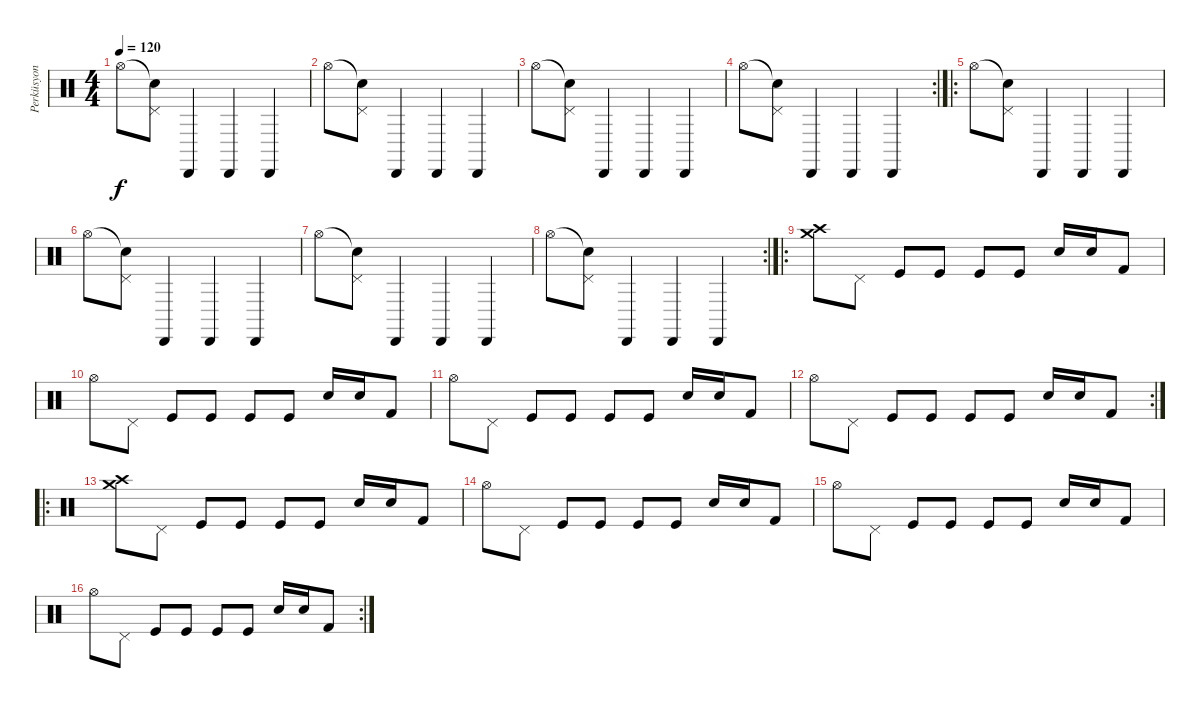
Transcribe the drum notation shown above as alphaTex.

\track ("Perküsyon" "Perküsyon") {instrument percussion}
\staff {score}
\articulation defaults
\ts (4 4)
\tempo 120
\clef neutral
\ks c "Hi-Hat (open)".8{dy f}
("Snare (hit)"{t} "Pedal Hi-Hat (hit)").8 "Cabasa (hit)".4 "Cabasa (hit)".4 "Cabasa (hit)".4 |
"Hi-Hat (open)".8 ("Snare (hit)"{t} "Pedal Hi-Hat (hit)").8 "Cabasa (hit)".4 "Cabasa (hit)".4 "Cabasa (hit)".4 |
"Hi-Hat (open)".8 ("Snare (hit)"{t} "Pedal Hi-Hat (hit)").8 "Cabasa (hit)".4 "Cabasa (hit)".4 "Cabasa (hit)".4 |
\rc 2 "Hi-Hat (open)".8
("Snare (hit)"{t} "Pedal Hi-Hat (hit)").8 "Cabasa (hit)".4 "Cabasa (hit)".4 "Cabasa (hit)".4 |
\ro "Hi-Hat (open)".8
("Snare (hit)"{t} "Pedal Hi-Hat (hit)").8 "Cabasa (hit)".4 "Cabasa (hit)".4 "Cabasa (hit)".4 |
"Hi-Hat (open)".8 ("Snare (hit)"{t} "Pedal Hi-Hat (hit)").8 "Cabasa (hit)".4 "Cabasa (hit)".4 "Cabasa (hit)".4 |
"Hi-Hat (open)".8 ("Snare (hit)"{t} "Pedal Hi-Hat (hit)").8 "Cabasa (hit)".4 "Cabasa (hit)".4 "Cabasa (hit)".4 |
\rc 2 "Hi-Hat (open)".8
("Snare (hit)"{t} "Pedal Hi-Hat (hit)").8 "Cabasa (hit)".4 "Cabasa (hit)".4 "Cabasa (hit)".4 |
\ro
("Crash medium (hit)" "Crash high (hit)").8 "Pedal Hi-Hat (hit)".8 "Kick (hit)".8 "Kick (hit)".8 "Kick (hit)".8 "Kick (hit)".8 "Snare (hit) 2".16 "Snare (hit) 2".16 "Kick (hit) 2".8 |
"Hi-Hat (open)".8 "Pedal Hi-Hat (hit)".8 "Kick (hit)".8 "Kick (hit)".8 "Kick (hit)".8 "Kick (hit)".8 "Snare (hit) 2".16 "Snare (hit) 2".16 "Kick (hit) 2".8 |
"Hi-Hat (open)".8 "Pedal Hi-Hat (hit)".8 "Kick (hit)".8 "Kick (hit)".8 "Kick (hit)".8 "Kick (hit)".8 "Snare (hit) 2".16 "Snare (hit) 2".16 "Kick (hit) 2".8 |
\rc 2 "Hi-Hat (open)".8 "Pedal Hi-Hat (hit)".8 "Kick (hit)".8 "Kick (hit)".8 "Kick (hit)".8 "Kick (hit)".8 "Snare (hit) 2".16 "Snare (hit) 2".16 "Kick (hit) 2".8
|
\ro
("Crash medium (hit)" "Crash high (hit)").8 "Pedal Hi-Hat (hit)".8 "Kick (hit)".8 "Kick (hit)".8 "Kick (hit)".8 "Kick (hit)".8 "Snare (hit) 2".16 "Snare (hit) 2".16 "Kick (hit) 2".8 |
"Hi-Hat (open)".8 "Pedal Hi-Hat (hit)".8 "Kick (hit)".8 "Kick (hit)".8 "Kick (hit)".8 "Kick (hit)".8 "Snare (hit) 2".16 "Snare (hit) 2".16 "Kick (hit) 2".8 |
"Hi-Hat (open)".8 "Pedal Hi-Hat (hit)".8 "Kick (hit)".8 "Kick (hit)".8 "Kick (hit)".8 "Kick (hit)".8 "Snare (hit) 2".16 "Snare (hit) 2".16 "Kick (hit) 2".8 |
\rc 2 "Hi-Hat (open)".8 "Pedal Hi-Hat (hit)".8 "Kick (hit)".8 "Kick (hit)".8 "Kick (hit)".8 "Kick (hit)".8 "Snare (hit) 2".16 "Snare (hit) 2".16 "Kick (hit) 2".8
